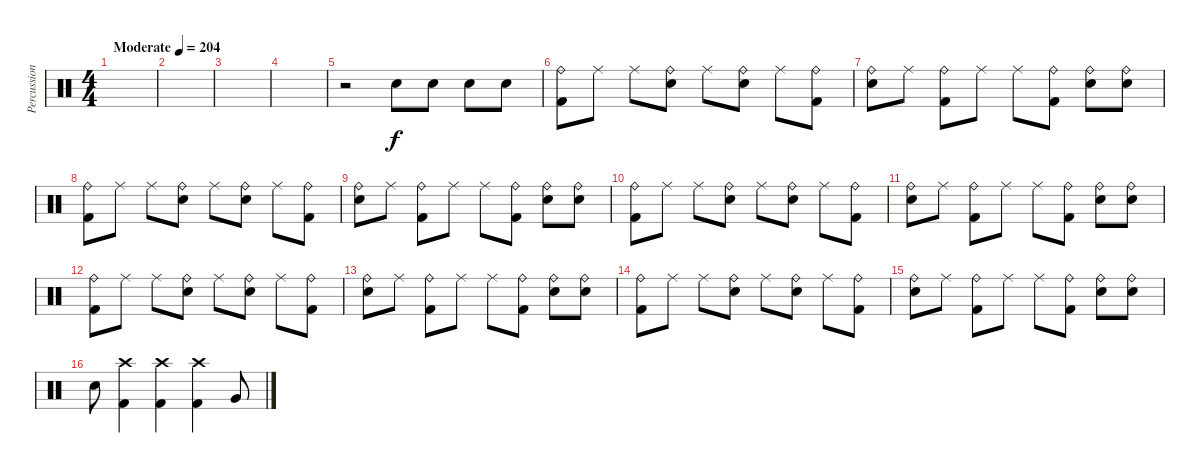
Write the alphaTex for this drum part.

\track ("Percussion" "Percussion") {instrument percussion}
\staff {score}
\articulation defaults
\ts (4 4)
\tempo (204 "Moderate")
\clef neutral
\ks c
|
|
|
|
r.2 "Snare (hit) 2".8 "Snare (hit) 2".8 "Snare (hit) 2".8 "Snare (hit) 2".8 |
("Ride (bell)" "Kick (hit) 2").8 "Ride (middle)".8 "Ride (middle)".8 ("Ride (bell)" "Snare (hit) 2").8 "Ride (middle)".8 ("Ride (bell)" "Snare (hit) 2").8 "Ride (middle)".8 ("Ride (bell)" "Kick (hit) 2").8 |
("Ride (bell)" "Snare (hit) 2").8 "Ride (middle)".8 ("Ride (bell)" "Kick (hit) 2").8 "Ride (middle)".8 "Ride (middle)".8 ("Ride (bell)" "Kick (hit) 2").8 ("Ride (bell)" "Snare (hit) 2").8 ("Ride (bell)" "Snare (hit) 2").8 |
("Ride (bell)" "Kick (hit) 2").8 "Ride (middle)".8 "Ride (middle)".8 ("Ride (bell)" "Snare (hit) 2").8 "Ride (middle)".8 ("Ride (bell)" "Snare (hit) 2").8 "Ride (middle)".8 ("Ride (bell)" "Kick (hit) 2").8 |
("Ride (bell)" "Snare (hit) 2").8 "Ride (middle)".8 ("Ride (bell)" "Kick (hit) 2").8 "Ride (middle)".8 "Ride (middle)".8 ("Ride (bell)" "Kick (hit) 2").8 ("Ride (bell)" "Snare (hit) 2").8 ("Ride (bell)" "Snare (hit) 2").8 |
("Ride (bell)" "Kick (hit) 2").8 "Ride (middle)".8 "Ride (middle)".8 ("Ride (bell)" "Snare (hit) 2").8 "Ride (middle)".8 ("Ride (bell)" "Snare (hit) 2").8 "Ride (middle)".8 ("Ride (bell)" "Kick (hit) 2").8 |
("Ride (bell)" "Snare (hit) 2").8 "Ride (middle)".8 ("Ride (bell)" "Kick (hit) 2").8 "Ride (middle)".8 "Ride (middle)".8 ("Ride (bell)" "Kick (hit) 2").8 ("Ride (bell)" "Snare (hit) 2").8 ("Ride (bell)" "Snare (hit) 2").8 |
("Ride (bell)" "Kick (hit) 2").8 "Ride (middle)".8 "Ride (middle)".8 ("Ride (bell)" "Snare (hit) 2").8 "Ride (middle)".8 ("Ride (bell)" "Snare (hit) 2").8 "Ride (middle)".8 ("Ride (bell)" "Kick (hit) 2").8 |
("Ride (bell)" "Snare (hit) 2").8 "Ride (middle)".8 ("Ride (bell)" "Kick (hit) 2").8 "Ride (middle)".8 "Ride (middle)".8 ("Ride (bell)" "Kick (hit) 2").8 ("Ride (bell)" "Snare (hit) 2").8 ("Ride (bell)" "Snare (hit) 2").8 |
("Ride (bell)" "Kick (hit) 2").8 "Ride (middle)".8 "Ride (middle)".8 ("Ride (bell)" "Snare (hit) 2").8 "Ride (middle)".8 ("Ride (bell)" "Snare (hit) 2").8 "Ride (middle)".8 ("Ride (bell)" "Kick (hit) 2").8 |
("Ride (bell)" "Snare (hit) 2").8 "Ride (middle)".8 ("Ride (bell)" "Kick (hit) 2").8 "Ride (middle)".8 "Ride (middle)".8 ("Ride (bell)" "Kick (hit) 2").8 ("Ride (bell)" "Snare (hit) 2").8 ("Ride (bell)" "Snare (hit) 2").8 |
"Snare (hit) 2".8 ("Crash high (hit)" "Kick (hit) 2").4 ("Crash high (hit)" "Kick (hit) 2").4 ("Crash high (hit)" "Kick (hit) 2").4 "Very Low Tom (hit)".8
